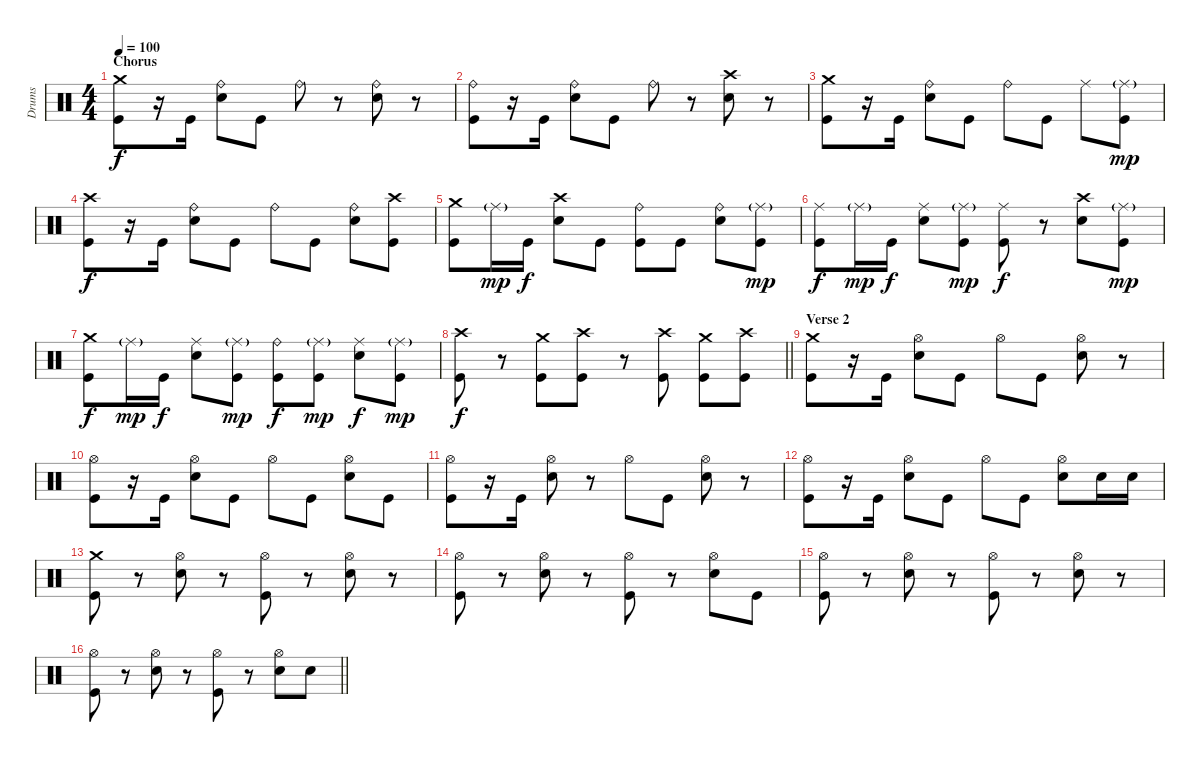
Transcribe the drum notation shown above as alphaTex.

\track ("Drums" "Drums") {instrument percussion}
\staff {score}
\articulation defaults
\ts (4 4)
\section ("" "Chorus")
\tempo 100
\clef neutral
\ks c
("Crash medium (hit)" "Kick (hit)").8{dy f} r.16 "Kick (hit)".16 ("Ride (bell)" "Electric Snare (hit)").8 "Kick (hit)".8 "Ride (bell)".8 r.8 ("Ride (bell)" "Electric Snare (hit)").8 r.8 |
("Ride (bell)" "Kick (hit)").8 r.16 "Kick (hit)".16 ("Ride (bell)" "Electric Snare (hit)").8 "Kick (hit)".8 "Ride (bell)".8 r.8 ("Crash high (hit)" "Electric Snare (hit)").8 r.8 |
("Crash medium (hit)" "Kick (hit)").8 r.16 "Kick (hit)".16 ("Ride (bell)" "Electric Snare (hit)").8 "Kick (hit)".8 "Ride (bell)".8 "Kick (hit)".8 "Ride (middle)".8 ("Ride (middle)"{g} "Kick (hit)").8{dy mp} |
("Crash high (hit)" "Kick (hit)").8{dy f} r.16 "Kick (hit)".16 ("Ride (bell)" "Electric Snare (hit)").8 "Kick (hit)".8 "Ride (bell)".8 "Kick (hit)".8 ("Ride (bell)" "Electric Snare (hit)").8 ("Crash high (hit)" "Kick (hit)").8 |
("Crash medium (hit)" "Kick (hit)").8 "Ride (middle)"{g}.16{dy mp} "Kick (hit)".16{dy f} ("Crash high (hit)" "Electric Snare (hit)").8 "Kick (hit)".8 ("Ride (bell)" "Kick (hit)").8 "Kick (hit)".8 ("Ride (bell)" "Electric Snare (hit)").8 ("Ride (middle)"{g} "Kick (hit)").8{dy mp} |
("Ride (middle)" "Kick (hit)").8{dy f} "Ride (middle)"{g}.16{dy mp} "Kick (hit)".16{dy f} ("Ride (middle)" "Electric Snare (hit)").8 ("Ride (middle)"{g} "Kick (hit)").8{dy mp} ("Ride (middle)" "Kick (hit)").8{dy f} r.8 ("Crash high (hit)" "Electric Snare (hit)").8 ("Ride (middle)"{g} "Kick (hit)").8{dy mp} |
("Crash medium (hit)" "Kick (hit)").8{dy f} "Ride (middle)"{g}.16{dy mp} "Kick (hit)".16{dy f} ("Ride (middle)" "Electric Snare (hit)").8 ("Ride (middle)"{g} "Kick (hit)").8{dy mp} ("Ride (bell)" "Kick (hit)").8{dy f} ("Ride (middle)"{g} "Kick (hit)").8{dy mp} ("Ride (middle)" "Electric Snare (hit)").8{dy f} ("Ride (middle)"{g} "Kick (hit)").8{dy mp} |
\barLineRight lightlight
("Crash high (hit)" "Kick (hit)").8{dy f} r.8 ("Crash medium (hit)" "Kick (hit)").8 ("Crash high (hit)" "Kick (hit)").8 r.8 ("Crash high (hit)" "Kick (hit)").8 ("Crash medium (hit)" "Kick (hit)").8 ("Crash high (hit)" "Kick (hit)").8 |
\section ("" "Verse 2")
("Crash medium (hit)" "Kick (hit)").8 r.16 "Kick (hit)".16 ("Hi-Hat (open)" "Electric Snare (hit)").8 "Kick (hit)".8 "Hi-Hat (open)".8 "Kick (hit)".8 ("Hi-Hat (open)" "Electric Snare (hit)").8 r.8 |
("Hi-Hat (open)" "Kick (hit)").8 r.16 "Kick (hit)".16 ("Hi-Hat (open)" "Electric Snare (hit)").8 "Kick (hit)".8 "Hi-Hat (open)".8 "Kick (hit)".8 ("Hi-Hat (open)" "Electric Snare (hit)").8 "Kick (hit)".8 |
("Hi-Hat (open)" "Kick (hit)").8 r.16 "Kick (hit)".16 ("Hi-Hat (open)" "Electric Snare (hit)").8 r.8 "Hi-Hat (open)".8 "Kick (hit)".8 ("Hi-Hat (open)" "Electric Snare (hit)").8 r.8 |
("Hi-Hat (open)" "Kick (hit)").8 r.16 "Kick (hit)".16 ("Hi-Hat (open)" "Electric Snare (hit)").8 "Kick (hit)".8 "Hi-Hat (open)".8 "Kick (hit)".8 ("Hi-Hat (open)" "Electric Snare (hit)").8 "Electric Snare (hit)".16 "Electric Snare (hit)".16 |
("Crash medium (hit)" "Kick (hit)").8 r.8 ("Hi-Hat (open)" "Electric Snare (hit)").8 r.8 ("Hi-Hat (open)" "Kick (hit)").8 r.8 ("Hi-Hat (open)" "Electric Snare (hit)").8 r.8 |
("Hi-Hat (open)" "Kick (hit)").8 r.8 ("Hi-Hat (open)" "Electric Snare (hit)").8 r.8 ("Hi-Hat (open)" "Kick (hit)").8 r.8 ("Hi-Hat (open)" "Electric Snare (hit)").8 "Kick (hit)".8 |
("Hi-Hat (open)" "Kick (hit)").8 r.8 ("Hi-Hat (open)" "Electric Snare (hit)").8 r.8 ("Hi-Hat (open)" "Kick (hit)").8 r.8 ("Hi-Hat (open)" "Electric Snare (hit)").8 r.8 |
\barLineRight lightlight
("Hi-Hat (open)" "Kick (hit)").8 r.8 ("Hi-Hat (open)" "Electric Snare (hit)").8 r.8 ("Hi-Hat (open)" "Kick (hit)").8 r.8 ("Hi-Hat (open)" "Electric Snare (hit)").8 "Electric Snare (hit)".8
